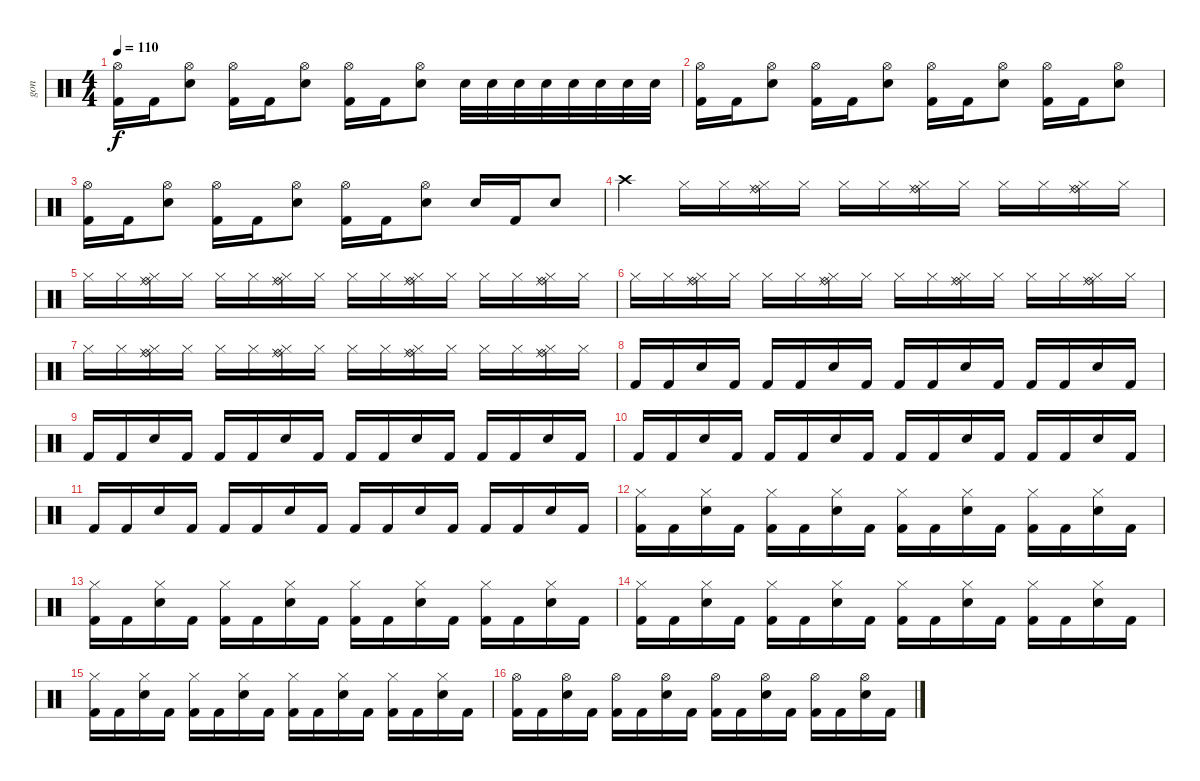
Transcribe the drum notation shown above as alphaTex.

\track ("gon" "gon") {instrument percussion}
\staff {score}
\articulation defaults
\ts (4 4)
\tempo 110
\clef neutral
\ks c
("Hi-Hat (open)" "Kick (hit) 2").16{dy f} "Kick (hit) 2".16 ("Hi-Hat (open)" "Electric Snare (hit)").8 ("Hi-Hat (open)" "Kick (hit) 2").16 "Kick (hit) 2".16 ("Hi-Hat (open)" "Electric Snare (hit)").8 ("Hi-Hat (open)" "Kick (hit) 2").16 "Kick (hit) 2".16 ("Hi-Hat (open)" "Electric Snare (hit)").8 "Electric Snare (hit)".32 "Electric Snare (hit)".32 "Electric Snare (hit)".32 "Electric Snare (hit)".32 "Electric Snare (hit)".32 "Electric Snare (hit)".32 "Electric Snare (hit)".32 "Electric Snare (hit)".32 |
("Hi-Hat (open)" "Kick (hit) 2").16 "Kick (hit) 2".16 ("Hi-Hat (open)" "Electric Snare (hit)").8 ("Hi-Hat (open)" "Kick (hit) 2").16 "Kick (hit) 2".16 ("Hi-Hat (open)" "Electric Snare (hit)").8 ("Hi-Hat (open)" "Kick (hit) 2").16 "Kick (hit) 2".16 ("Hi-Hat (open)" "Electric Snare (hit)").8 ("Hi-Hat (open)" "Kick (hit) 2").16 "Kick (hit) 2".16 ("Hi-Hat (open)" "Electric Snare (hit)").8 |
("Hi-Hat (open)" "Kick (hit) 2").16 "Kick (hit) 2".16 ("Hi-Hat (open)" "Electric Snare (hit)").8 ("Hi-Hat (open)" "Kick (hit) 2").16 "Kick (hit) 2".16 ("Hi-Hat (open)" "Electric Snare (hit)").8 ("Hi-Hat (open)" "Kick (hit) 2").16 "Kick (hit) 2".16 ("Hi-Hat (open)" "Electric Snare (hit)").8 "Electric Snare (hit)".16 "Kick (hit) 2".16 "Electric Snare (hit)".8 |
"Crash high (hit)".4 "Hi-Hat (closed)".16 "Hi-Hat (closed)".16 ("Ride (bell)" "Ride (middle)" "Hi-Hat (closed)").16 "Hi-Hat (closed)".16 "Hi-Hat (closed)".16 "Hi-Hat (closed)".16 ("Ride (bell)" "Ride (middle)" "Hi-Hat (closed)").16 "Hi-Hat (closed)".16 "Hi-Hat (closed)".16 "Hi-Hat (closed)".16 ("Ride (bell)" "Ride (middle)" "Hi-Hat (closed)").16 "Hi-Hat (closed)".16 |
"Hi-Hat (closed)".16 "Hi-Hat (closed)".16 ("Ride (bell)" "Ride (middle)" "Hi-Hat (closed)").16 "Hi-Hat (closed)".16 "Hi-Hat (closed)".16 "Hi-Hat (closed)".16 ("Ride (bell)" "Ride (middle)" "Hi-Hat (closed)").16 "Hi-Hat (closed)".16 "Hi-Hat (closed)".16 "Hi-Hat (closed)".16 ("Ride (bell)" "Ride (middle)" "Hi-Hat (closed)").16 "Hi-Hat (closed)".16 "Hi-Hat (closed)".16 "Hi-Hat (closed)".16 ("Ride (bell)" "Ride (middle)" "Hi-Hat (closed)").16 "Hi-Hat (closed)".16 |
"Hi-Hat (closed)".16 "Hi-Hat (closed)".16 ("Ride (bell)" "Ride (middle)" "Hi-Hat (closed)").16 "Hi-Hat (closed)".16 "Hi-Hat (closed)".16 "Hi-Hat (closed)".16 ("Ride (bell)" "Ride (middle)" "Hi-Hat (closed)").16 "Hi-Hat (closed)".16 "Hi-Hat (closed)".16 "Hi-Hat (closed)".16 ("Ride (bell)" "Ride (middle)" "Hi-Hat (closed)").16 "Hi-Hat (closed)".16 "Hi-Hat (closed)".16 "Hi-Hat (closed)".16 ("Ride (bell)" "Ride (middle)" "Hi-Hat (closed)").16 "Hi-Hat (closed)".16 |
"Hi-Hat (closed)".16 "Hi-Hat (closed)".16 ("Ride (bell)" "Ride (middle)" "Hi-Hat (closed)").16 "Hi-Hat (closed)".16 "Hi-Hat (closed)".16 "Hi-Hat (closed)".16 ("Ride (bell)" "Ride (middle)" "Hi-Hat (closed)").16 "Hi-Hat (closed)".16 "Hi-Hat (closed)".16 "Hi-Hat (closed)".16 ("Ride (bell)" "Ride (middle)" "Hi-Hat (closed)").16 "Hi-Hat (closed)".16 "Hi-Hat (closed)".16 "Hi-Hat (closed)".16 ("Ride (bell)" "Ride (middle)" "Hi-Hat (closed)").16 "Hi-Hat (closed)".16 |
"Kick (hit) 2".16 "Kick (hit) 2".16 "Electric Snare (hit)".16 "Kick (hit) 2".16 "Kick (hit) 2".16 "Kick (hit) 2".16 "Snare (hit) 2".16 "Kick (hit) 2".16 "Kick (hit) 2".16 "Kick (hit) 2".16 "Electric Snare (hit)".16 "Kick (hit) 2".16 "Kick (hit) 2".16 "Kick (hit) 2".16 "Snare (hit) 2".16 "Kick (hit) 2".16 |
"Kick (hit) 2".16 "Kick (hit) 2".16 "Snare (hit) 2".16 "Kick (hit) 2".16 "Kick (hit) 2".16 "Kick (hit) 2".16 "Snare (hit) 2".16 "Kick (hit) 2".16 "Kick (hit) 2".16 "Kick (hit) 2".16 "Snare (hit) 2".16 "Kick (hit) 2".16 "Kick (hit) 2".16 "Kick (hit) 2".16 "Snare (hit) 2".16 "Kick (hit) 2".16 |
"Kick (hit) 2".16 "Kick (hit) 2".16 "Snare (hit) 2".16 "Kick (hit) 2".16 "Kick (hit) 2".16 "Kick (hit) 2".16 "Snare (hit) 2".16 "Kick (hit) 2".16 "Kick (hit) 2".16 "Kick (hit) 2".16 "Snare (hit) 2".16 "Kick (hit) 2".16 "Kick (hit) 2".16 "Kick (hit) 2".16 "Snare (hit) 2".16 "Kick (hit) 2".16 |
"Kick (hit) 2".16 "Kick (hit) 2".16 "Snare (hit) 2".16 "Kick (hit) 2".16 "Kick (hit) 2".16 "Kick (hit) 2".16 "Snare (hit) 2".16 "Kick (hit) 2".16 "Kick (hit) 2".16 "Kick (hit) 2".16 "Snare (hit) 2".16 "Kick (hit) 2".16 "Kick (hit) 2".16 "Kick (hit) 2".16 "Snare (hit) 2".16 "Kick (hit) 2".16 |
("Hi-Hat (closed)" "Kick (hit) 2").16 "Kick (hit) 2".16 ("Hi-Hat (closed)" "Snare (hit) 2").16 "Kick (hit) 2".16 ("Hi-Hat (closed)" "Kick (hit) 2").16 "Kick (hit) 2".16 ("Hi-Hat (closed)" "Snare (hit) 2").16 "Kick (hit) 2".16 ("Hi-Hat (closed)" "Kick (hit) 2").16 "Kick (hit) 2".16 ("Hi-Hat (closed)" "Snare (hit) 2").16 "Kick (hit) 2".16 ("Hi-Hat (closed)" "Kick (hit) 2").16 "Kick (hit) 2".16 ("Hi-Hat (closed)" "Snare (hit) 2").16 "Kick (hit) 2".16 |
("Hi-Hat (closed)" "Kick (hit) 2").16 "Kick (hit) 2".16 ("Hi-Hat (closed)" "Snare (hit) 2").16 "Kick (hit) 2".16 ("Hi-Hat (closed)" "Kick (hit) 2").16 "Kick (hit) 2".16 ("Hi-Hat (closed)" "Snare (hit) 2").16 "Kick (hit) 2".16 ("Hi-Hat (closed)" "Kick (hit) 2").16 "Kick (hit) 2".16 ("Hi-Hat (closed)" "Snare (hit) 2").16 "Kick (hit) 2".16 ("Hi-Hat (closed)" "Kick (hit) 2").16 "Kick (hit) 2".16 ("Hi-Hat (closed)" "Snare (hit) 2").16 "Kick (hit) 2".16 |
("Hi-Hat (closed)" "Kick (hit) 2").16 "Kick (hit) 2".16 ("Hi-Hat (closed)" "Snare (hit) 2").16 "Kick (hit) 2".16 ("Hi-Hat (closed)" "Kick (hit) 2").16 "Kick (hit) 2".16 ("Hi-Hat (closed)" "Snare (hit) 2").16 "Kick (hit) 2".16 ("Hi-Hat (closed)" "Kick (hit) 2").16 "Kick (hit) 2".16 ("Hi-Hat (closed)" "Snare (hit) 2").16 "Kick (hit) 2".16 ("Hi-Hat (closed)" "Kick (hit) 2").16 "Kick (hit) 2".16 ("Hi-Hat (closed)" "Snare (hit) 2").16 "Kick (hit) 2".16 |
("Hi-Hat (closed)" "Kick (hit) 2").16 "Kick (hit) 2".16 ("Hi-Hat (closed)" "Snare (hit) 2").16 "Kick (hit) 2".16 ("Hi-Hat (closed)" "Kick (hit) 2").16 "Kick (hit) 2".16 ("Hi-Hat (closed)" "Snare (hit) 2").16 "Kick (hit) 2".16 ("Hi-Hat (closed)" "Kick (hit) 2").16 "Kick (hit) 2".16 ("Hi-Hat (closed)" "Snare (hit) 2").16 "Kick (hit) 2".16 ("Hi-Hat (closed)" "Kick (hit) 2").16 "Kick (hit) 2".16 ("Hi-Hat (closed)" "Snare (hit) 2").16 "Kick (hit) 2".16 |
("Hi-Hat (open)" "Kick (hit) 2").16 "Kick (hit) 2".16 ("Hi-Hat (open)" "Snare (hit) 2").16 "Kick (hit) 2".16 ("Hi-Hat (open)" "Kick (hit) 2").16 "Kick (hit) 2".16 ("Hi-Hat (open)" "Snare (hit) 2").16 "Kick (hit) 2".16 ("Hi-Hat (open)" "Kick (hit) 2").16 "Kick (hit) 2".16 ("Hi-Hat (open)" "Snare (hit) 2").16 "Kick (hit) 2".16 ("Hi-Hat (open)" "Kick (hit) 2").16 "Kick (hit) 2".16 ("Hi-Hat (open)" "Snare (hit) 2").16 "Kick (hit) 2".16
